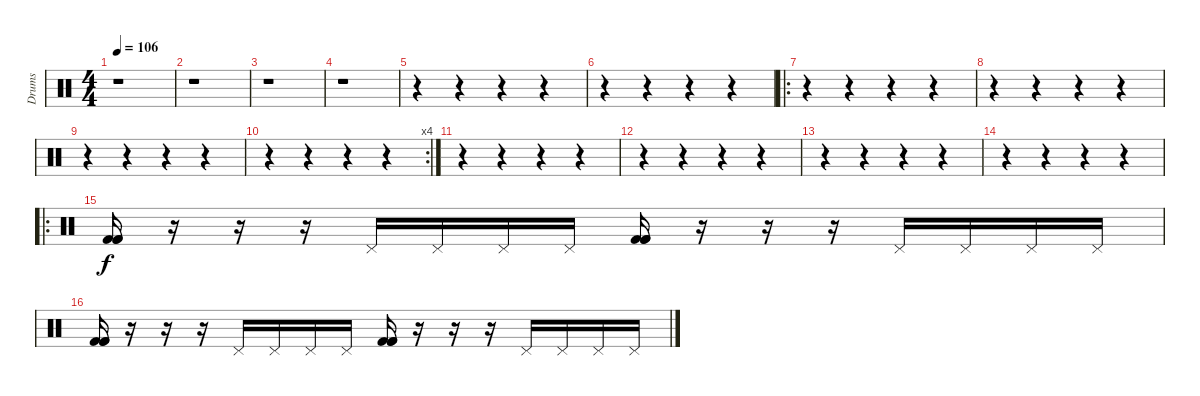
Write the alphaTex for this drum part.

\track ("Drums" "Drums") {instrument percussion}
\staff {score}
\articulation defaults
\ts (4 4)
\tempo 106
\clef neutral
\ks c
r.1{dy f} |
r.1 |
r.1 |
r.1 |
r.4 r.4 r.4 r.4 |
r.4 r.4 r.4 r.4 |
\ro
r.4 r.4 r.4 r.4 |
r.4 r.4 r.4 r.4 |
r.4 r.4 r.4 r.4 |
\rc 4
r.4 r.4 r.4 r.4 |
r.4 r.4 r.4 r.4 |
r.4 r.4 r.4 r.4 |
r.4 r.4 r.4 r.4 |
r.4 r.4 r.4 r.4 |
\ro
("Kick (hit) 2" "Kick (hit) 2" "Kick (hit) 2").16 r.16 r.16 r.16 "Pedal Hi-Hat (hit)".16 "Pedal Hi-Hat (hit)".16 "Pedal Hi-Hat (hit)".16 "Pedal Hi-Hat (hit)".16 ("Kick (hit) 2" "Kick (hit) 2" "Kick (hit) 2").16 r.16 r.16 r.16 "Pedal Hi-Hat (hit)".16 "Pedal Hi-Hat (hit)".16 "Pedal Hi-Hat (hit)".16 "Pedal Hi-Hat (hit)".16 |
("Kick (hit) 2" "Kick (hit) 2" "Kick (hit) 2").16 r.16 r.16 r.16 "Pedal Hi-Hat (hit)".16 "Pedal Hi-Hat (hit)".16 "Pedal Hi-Hat (hit)".16 "Pedal Hi-Hat (hit)".16 ("Kick (hit) 2" "Kick (hit) 2" "Kick (hit) 2").16 r.16 r.16 r.16 "Pedal Hi-Hat (hit)".16 "Pedal Hi-Hat (hit)".16 "Pedal Hi-Hat (hit)".16 "Pedal Hi-Hat (hit)".16
